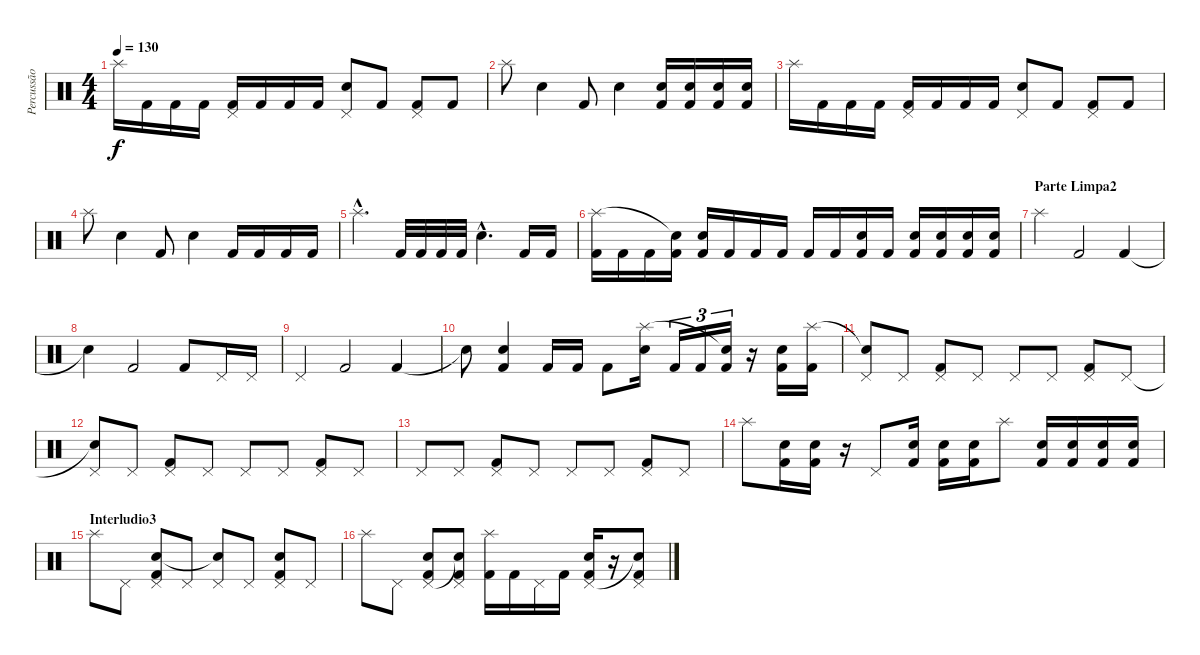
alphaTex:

\track ("Percussão" "Percussão") {instrument percussion}
\staff {score}
\articulation defaults
\ts (4 4)
\tempo 130
\clef neutral
\ks c "Splash (hit)".16{dy f} "Kick (hit) 2".16 "Kick (hit) 2".16 "Kick (hit) 2".16
("Kick (hit) 2" "Pedal Hi-Hat (hit)").16 "Kick (hit) 2".16 "Kick (hit) 2".16 "Kick (hit) 2".16 ("Snare (hit) 2" "Pedal Hi-Hat (hit)").8 "Kick (hit) 2".8 ("Kick (hit) 2" "Pedal Hi-Hat (hit)").8 "Kick (hit) 2".8 |
"Splash (hit)".8 "Snare (hit) 2".4 "Kick (hit) 2".8 "Snare (hit) 2".4 ("Kick (hit) 2" "Snare (hit) 2").16 ("Kick (hit) 2" "Snare (hit) 2").16 ("Kick (hit) 2" "Snare (hit) 2").16 ("Kick (hit) 2" "Snare (hit) 2").16 |
"Splash (hit)".16 "Kick (hit) 2".16 "Kick (hit) 2".16 "Kick (hit) 2".16 ("Kick (hit) 2" "Pedal Hi-Hat (hit)").16 "Kick (hit) 2".16 "Kick (hit) 2".16 "Kick (hit) 2".16 ("Snare (hit) 2" "Pedal Hi-Hat (hit)").8 "Kick (hit) 2".8 ("Kick (hit) 2" "Pedal Hi-Hat (hit)").8 "Kick (hit) 2".8 |
"Splash (hit)".8 "Snare (hit) 2".4 "Kick (hit) 2".8 "Snare (hit) 2".4 "Kick (hit) 2".16 "Kick (hit) 2".16 "Kick (hit) 2".16 "Kick (hit) 2".16 |
"Splash (hit)"{hac}.4{d} "Kick (hit) 2".32 "Kick (hit) 2".32 "Kick (hit) 2".32 "Kick (hit) 2".32 "Snare (hit) 2"{hac}.4{d} "Kick (hit) 2".16 "Kick (hit) 2".16 |
("Kick (hit) 2" "Splash (hit)").16 "Kick (hit) 2".16 "Kick (hit) 2".16 ("Kick (hit) 2" "Snare (hit)"{t}).16 ("Kick (hit) 2" "Snare (hit) 2").16 "Kick (hit) 2".16 "Kick (hit) 2".16 "Kick (hit) 2".16 "Kick (hit) 2".16 "Kick (hit) 2".16 ("Kick (hit) 2" "Snare (hit) 2").16 "Kick (hit) 2".16 ("Kick (hit) 2" "Snare (hit) 2").16 ("Kick (hit) 2" "Snare (hit) 2").16 ("Kick (hit) 2" "Snare (hit) 2").16 ("Kick (hit) 2" "Snare (hit) 2").16 |
\section ("" "Parte Limpa2")
"Splash (hit)".4 "Kick (hit) 2".2 "Kick (hit) 2".4 |
"Snare (hit)"{t}.4 "Kick (hit) 2".2 "Kick (hit) 2".8 "Pedal Hi-Hat (hit)".16 "Pedal Hi-Hat (hit)".16 |
"Pedal Hi-Hat (hit)".4 "Kick (hit) 2".2 "Kick (hit) 2".4 |
"Snare (hit)"{t}.8 ("Kick (hit) 2" "Snare (hit) 2").4 "Kick (hit) 2".16 "Kick (hit) 2".16 "Kick (hit) 2".8 ("Snare (hit) 2" "Splash (hit)").16 "Kick (hit) 2".16{tu (3 2)} "Kick (hit) 2".16{tu (3 2)} ("Kick (hit) 2" "Snare (hit)"{t}).16{tu (3 2)} r.16 ("Kick (hit) 2" "Snare (hit) 2").16 ("Kick (hit) 2" "Splash (hit)").16 |
("Pedal Hi-Hat (hit)" "Snare (hit)"{t}).8 "Pedal Hi-Hat (hit)".8 ("Kick (hit) 2" "Pedal Hi-Hat (hit)").8 "Pedal Hi-Hat (hit)".8 "Pedal Hi-Hat (hit)".8 "Pedal Hi-Hat (hit)".8 ("Kick (hit) 2" "Pedal Hi-Hat (hit)").8 "Pedal Hi-Hat (hit)".8 |
("Snare (hit)"{t} "Pedal Hi-Hat (hit)").8 "Pedal Hi-Hat (hit)".8 ("Kick (hit) 2" "Pedal Hi-Hat (hit)").8 "Pedal Hi-Hat (hit)".8 "Pedal Hi-Hat (hit)".8 "Pedal Hi-Hat (hit)".8 ("Kick (hit) 2" "Pedal Hi-Hat (hit)").8 "Pedal Hi-Hat (hit)".8 |
"Pedal Hi-Hat (hit)".8 "Pedal Hi-Hat (hit)".8 ("Kick (hit) 2" "Pedal Hi-Hat (hit)").8 "Pedal Hi-Hat (hit)".8 "Pedal Hi-Hat (hit)".8 "Pedal Hi-Hat (hit)".8 ("Kick (hit) 2" "Pedal Hi-Hat (hit)").8 "Pedal Hi-Hat (hit)".8 |
"Splash (hit)".8 ("Kick (hit) 2" "Snare (hit) 2").16 ("Kick (hit) 2" "Snare (hit) 2").16 r.16 "Pedal Hi-Hat (hit)".8 ("Kick (hit) 2" "Snare (hit) 2").16 ("Kick (hit) 2" "Snare (hit) 2").16 ("Kick (hit) 2" "Snare (hit) 2").16 "Splash (hit)".8 ("Kick (hit) 2" "Snare (hit) 2").16 ("Kick (hit) 2" "Snare (hit) 2").16 ("Kick (hit) 2" "Snare (hit) 2").16 ("Kick (hit) 2" "Snare (hit) 2").16 |
\section ("" "Interludio3")
"Splash (hit)".8 "Pedal Hi-Hat (hit)".8 ("Kick (hit) 2" "Snare (hit) 2" "Pedal Hi-Hat (hit)").8 "Pedal Hi-Hat (hit)".8 ("Pedal Hi-Hat (hit)" "Snare (hit)"{t}).8 "Pedal Hi-Hat (hit)".8 ("Kick (hit) 2" "Snare (hit) 2" "Pedal Hi-Hat (hit)").8 "Pedal Hi-Hat (hit)".8 |
"Splash (hit)".8 "Pedal Hi-Hat (hit)".8 ("Kick (hit) 2" "Snare (hit) 2" "Pedal Hi-Hat (hit)").8 ("Kick (hit) 2" "Pedal Hi-Hat (hit)" "Snare (hit)"{t}).8 ("Kick (hit) 2" "Splash (hit)").16 "Kick (hit) 2".16 "Pedal Hi-Hat (hit)".16 "Kick (hit) 2".16 ("Kick (hit) 2" "Snare (hit) 2" "Pedal Hi-Hat (hit)").16 r.16 ("Kick (hit) 2" "Pedal Hi-Hat (hit)" "Snare (hit)"{t}).8
